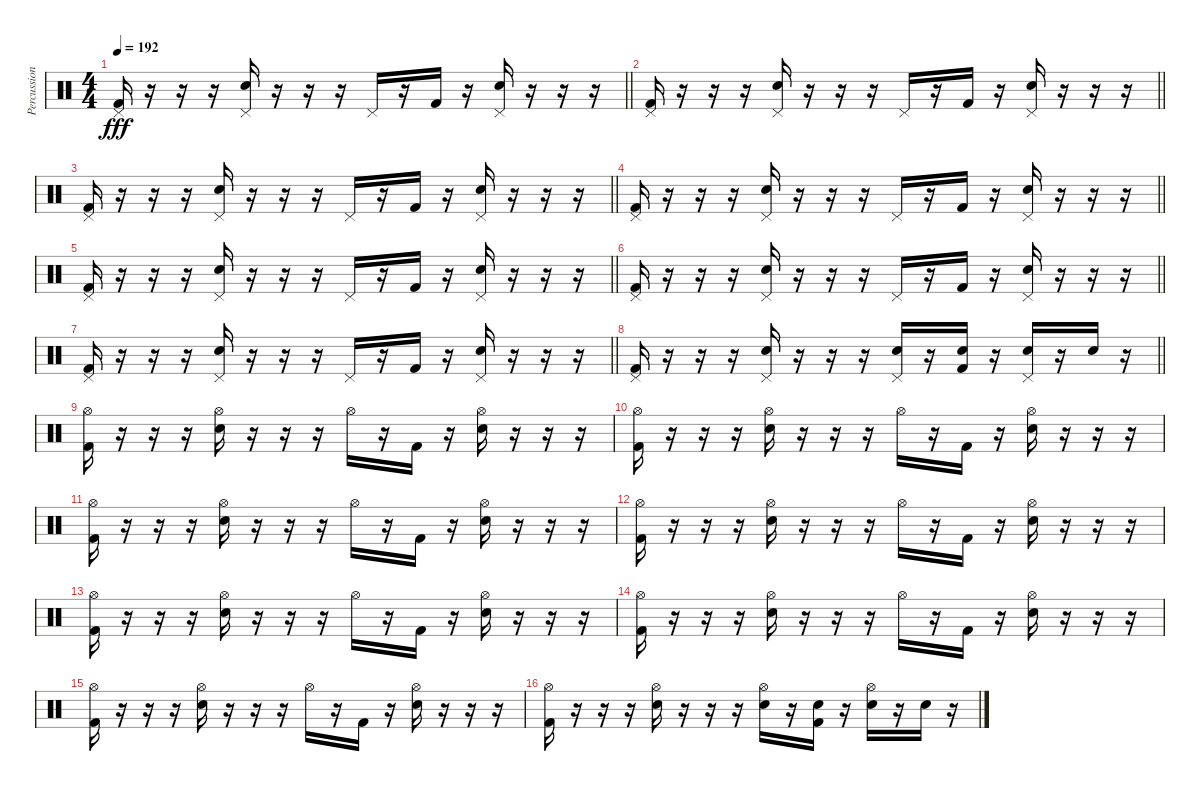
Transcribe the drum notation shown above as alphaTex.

\track ("Percussion" "Percussion") {instrument percussion}
\staff {score}
\articulation defaults
\ts (4 4)
\tempo 192
\clef neutral
\barLineRight lightlight
\ks c
("Pedal Hi-Hat (hit)" "Kick (hit) 2").16{dy fff} r.16 r.16 r.16 ("Pedal Hi-Hat (hit)" "Electric Snare (hit)").16 r.16 r.16 r.16 "Pedal Hi-Hat (hit)".16 r.16 "Kick (hit) 2".16 r.16 ("Pedal Hi-Hat (hit)" "Electric Snare (hit)").16 r.16 r.16 r.16 |
\barLineRight lightlight
("Pedal Hi-Hat (hit)" "Kick (hit) 2").16 r.16 r.16 r.16 ("Pedal Hi-Hat (hit)" "Electric Snare (hit)").16 r.16 r.16 r.16 "Pedal Hi-Hat (hit)".16 r.16 "Kick (hit) 2".16 r.16 ("Pedal Hi-Hat (hit)" "Electric Snare (hit)").16 r.16 r.16 r.16 |
\barLineRight lightlight
("Pedal Hi-Hat (hit)" "Kick (hit) 2").16 r.16 r.16 r.16 ("Pedal Hi-Hat (hit)" "Electric Snare (hit)").16 r.16 r.16 r.16 "Pedal Hi-Hat (hit)".16 r.16 "Kick (hit) 2".16 r.16 ("Pedal Hi-Hat (hit)" "Electric Snare (hit)").16 r.16 r.16 r.16 |
\barLineRight lightlight
("Pedal Hi-Hat (hit)" "Kick (hit) 2").16 r.16 r.16 r.16 ("Pedal Hi-Hat (hit)" "Electric Snare (hit)").16 r.16 r.16 r.16 "Pedal Hi-Hat (hit)".16 r.16 "Kick (hit) 2".16 r.16 ("Pedal Hi-Hat (hit)" "Electric Snare (hit)").16 r.16 r.16 r.16 |
\barLineRight lightlight
("Pedal Hi-Hat (hit)" "Kick (hit) 2").16 r.16 r.16 r.16 ("Pedal Hi-Hat (hit)" "Electric Snare (hit)").16 r.16 r.16 r.16 "Pedal Hi-Hat (hit)".16 r.16 "Kick (hit) 2".16 r.16 ("Pedal Hi-Hat (hit)" "Electric Snare (hit)").16 r.16 r.16 r.16 |
\barLineRight lightlight
("Pedal Hi-Hat (hit)" "Kick (hit) 2").16 r.16 r.16 r.16 ("Pedal Hi-Hat (hit)" "Electric Snare (hit)").16 r.16 r.16 r.16 "Pedal Hi-Hat (hit)".16 r.16 "Kick (hit) 2".16 r.16 ("Pedal Hi-Hat (hit)" "Electric Snare (hit)").16 r.16 r.16 r.16 |
\barLineRight lightlight
("Pedal Hi-Hat (hit)" "Kick (hit) 2").16 r.16 r.16 r.16 ("Pedal Hi-Hat (hit)" "Electric Snare (hit)").16 r.16 r.16 r.16 "Pedal Hi-Hat (hit)".16 r.16 "Kick (hit) 2".16 r.16 ("Pedal Hi-Hat (hit)" "Electric Snare (hit)").16 r.16 r.16 r.16 |
\barLineRight lightlight
("Pedal Hi-Hat (hit)" "Kick (hit) 2").16 r.16 r.16 r.16 ("Pedal Hi-Hat (hit)" "Electric Snare (hit)").16 r.16 r.16 r.16 ("Pedal Hi-Hat (hit)" "Electric Snare (hit)").16 r.16 ("Electric Snare (hit)" "Kick (hit) 2").16 r.16 ("Pedal Hi-Hat (hit)" "Electric Snare (hit)").16 r.16 "Electric Snare (hit)".16 r.16 |
("Hi-Hat (open)" "Kick (hit) 2").16 r.16 r.16 r.16 ("Hi-Hat (open)" "Electric Snare (hit)").16 r.16 r.16 r.16 "Hi-Hat (open)".16 r.16 "Kick (hit) 2".16 r.16 ("Hi-Hat (open)" "Electric Snare (hit)").16 r.16 r.16 r.16 |
("Hi-Hat (open)" "Kick (hit) 2").16 r.16 r.16 r.16 ("Hi-Hat (open)" "Electric Snare (hit)").16 r.16 r.16 r.16 "Hi-Hat (open)".16 r.16 "Kick (hit) 2".16 r.16 ("Hi-Hat (open)" "Electric Snare (hit)").16 r.16 r.16 r.16 |
("Hi-Hat (open)" "Kick (hit) 2").16 r.16 r.16 r.16 ("Hi-Hat (open)" "Electric Snare (hit)").16 r.16 r.16 r.16 "Hi-Hat (open)".16 r.16 "Kick (hit) 2".16 r.16 ("Hi-Hat (open)" "Electric Snare (hit)").16 r.16 r.16 r.16 |
("Hi-Hat (open)" "Kick (hit) 2").16 r.16 r.16 r.16 ("Hi-Hat (open)" "Electric Snare (hit)").16 r.16 r.16 r.16 "Hi-Hat (open)".16 r.16 "Kick (hit) 2".16 r.16 ("Hi-Hat (open)" "Electric Snare (hit)").16 r.16 r.16 r.16 |
("Hi-Hat (open)" "Kick (hit) 2").16 r.16 r.16 r.16 ("Hi-Hat (open)" "Electric Snare (hit)").16 r.16 r.16 r.16 "Hi-Hat (open)".16 r.16 "Kick (hit) 2".16 r.16 ("Hi-Hat (open)" "Electric Snare (hit)").16 r.16 r.16 r.16 |
("Hi-Hat (open)" "Kick (hit) 2").16 r.16 r.16 r.16 ("Hi-Hat (open)" "Electric Snare (hit)").16 r.16 r.16 r.16 "Hi-Hat (open)".16 r.16 "Kick (hit) 2".16 r.16 ("Hi-Hat (open)" "Electric Snare (hit)").16 r.16 r.16 r.16 |
("Hi-Hat (open)" "Kick (hit) 2").16 r.16 r.16 r.16 ("Hi-Hat (open)" "Electric Snare (hit)").16 r.16 r.16 r.16 "Hi-Hat (open)".16 r.16 "Kick (hit) 2".16 r.16 ("Hi-Hat (open)" "Electric Snare (hit)").16 r.16 r.16 r.16 |
("Hi-Hat (open)" "Kick (hit) 2").16 r.16 r.16 r.16 ("Hi-Hat (open)" "Electric Snare (hit)").16 r.16 r.16 r.16 ("Hi-Hat (open)" "Electric Snare (hit)").16 r.16 ("Electric Snare (hit)" "Kick (hit) 2").16 r.16 ("Hi-Hat (open)" "Electric Snare (hit)").16 r.16 "Electric Snare (hit)".16 r.16
